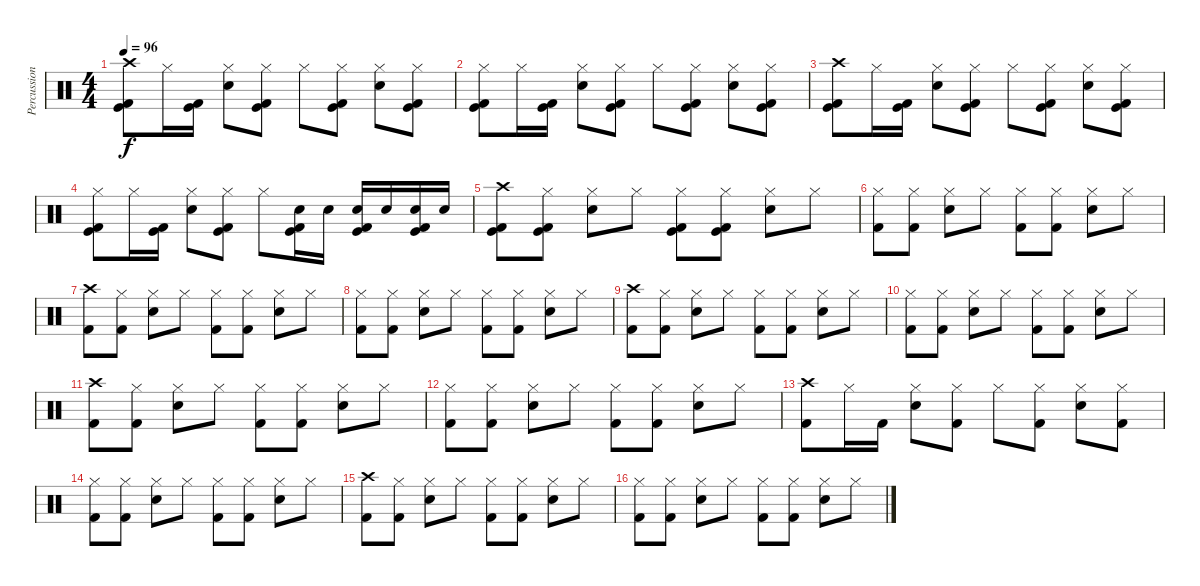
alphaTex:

\track ("Percussions" "Percussion") {instrument percussion}
\staff {score}
\articulation defaults
\ts (4 4)
\tempo 96
\clef neutral
\ks c
("Crash high (hit)" "Kick (hit)" "Kick (hit) 2").8{dy f} "Hi-Hat (closed)".16 ("Kick (hit)" "Kick (hit) 2").16 ("Hi-Hat (closed)" "Snare (hit) 2").8 ("Hi-Hat (closed)" "Kick (hit)" "Kick (hit) 2").8 "Hi-Hat (closed)".8 ("Hi-Hat (closed)" "Kick (hit)" "Kick (hit) 2").8 ("Hi-Hat (closed)" "Snare (hit) 2").8 ("Hi-Hat (closed)" "Kick (hit)" "Kick (hit) 2").8 |
("Hi-Hat (closed)" "Kick (hit)" "Kick (hit) 2").8 "Hi-Hat (closed)".16 ("Kick (hit)" "Kick (hit) 2").16 ("Hi-Hat (closed)" "Snare (hit) 2").8 ("Hi-Hat (closed)" "Kick (hit)" "Kick (hit) 2").8 "Hi-Hat (closed)".8 ("Hi-Hat (closed)" "Kick (hit)" "Kick (hit) 2").8 ("Hi-Hat (closed)" "Snare (hit) 2").8 ("Hi-Hat (closed)" "Kick (hit)" "Kick (hit) 2").8 |
("Crash high (hit)" "Kick (hit)" "Kick (hit) 2").8 "Hi-Hat (closed)".16 ("Kick (hit)" "Kick (hit) 2").16 ("Hi-Hat (closed)" "Snare (hit) 2").8 ("Hi-Hat (closed)" "Kick (hit)" "Kick (hit) 2").8 "Hi-Hat (closed)".8 ("Hi-Hat (closed)" "Kick (hit)" "Kick (hit) 2").8 ("Hi-Hat (closed)" "Snare (hit) 2").8 ("Hi-Hat (closed)" "Kick (hit)" "Kick (hit) 2").8 |
("Hi-Hat (closed)" "Kick (hit)" "Kick (hit) 2").8 "Hi-Hat (closed)".16 ("Kick (hit)" "Kick (hit) 2").16 ("Hi-Hat (closed)" "Snare (hit) 2").8 ("Hi-Hat (closed)" "Kick (hit)" "Kick (hit) 2").8 "Hi-Hat (closed)".8 ("Snare (hit) 2" "Kick (hit)" "Kick (hit) 2").16 "Snare (hit) 2".16 ("Snare (hit) 2" "Kick (hit)" "Kick (hit) 2").16 "Snare (hit) 2".16 ("Snare (hit) 2" "Kick (hit)" "Kick (hit) 2").16 "Snare (hit) 2".16 |
("Crash high (hit)" "Kick (hit)" "Kick (hit) 2").8 ("Hi-Hat (closed)" "Kick (hit)" "Kick (hit) 2").8 ("Hi-Hat (closed)" "Snare (hit) 2").8 "Hi-Hat (closed)".8 ("Hi-Hat (closed)" "Kick (hit)" "Kick (hit) 2").8 ("Hi-Hat (closed)" "Kick (hit)" "Kick (hit) 2").8 ("Hi-Hat (closed)" "Snare (hit) 2").8 "Hi-Hat (closed)".8 |
("Hi-Hat (closed)" "Kick (hit) 2").8 ("Hi-Hat (closed)" "Kick (hit) 2").8 ("Hi-Hat (closed)" "Snare (hit) 2").8 "Hi-Hat (closed)".8 ("Hi-Hat (closed)" "Kick (hit) 2").8 ("Hi-Hat (closed)" "Kick (hit) 2").8 ("Hi-Hat (closed)" "Snare (hit) 2").8 "Hi-Hat (closed)".8 |
("Crash high (hit)" "Kick (hit) 2").8 ("Hi-Hat (closed)" "Kick (hit) 2").8 ("Hi-Hat (closed)" "Snare (hit) 2").8 "Hi-Hat (closed)".8 ("Hi-Hat (closed)" "Kick (hit) 2").8 ("Hi-Hat (closed)" "Kick (hit) 2").8 ("Hi-Hat (closed)" "Snare (hit) 2").8 "Hi-Hat (closed)".8 |
("Hi-Hat (closed)" "Kick (hit) 2").8 ("Hi-Hat (closed)" "Kick (hit) 2").8 ("Hi-Hat (closed)" "Snare (hit) 2").8 "Hi-Hat (closed)".8 ("Hi-Hat (closed)" "Kick (hit) 2").8 ("Hi-Hat (closed)" "Kick (hit) 2").8 ("Hi-Hat (closed)" "Snare (hit) 2").8 "Hi-Hat (closed)".8 |
("Crash high (hit)" "Kick (hit) 2").8 ("Hi-Hat (closed)" "Kick (hit) 2").8 ("Hi-Hat (closed)" "Snare (hit) 2").8 "Hi-Hat (closed)".8 ("Hi-Hat (closed)" "Kick (hit) 2").8 ("Hi-Hat (closed)" "Kick (hit) 2").8 ("Hi-Hat (closed)" "Snare (hit) 2").8 "Hi-Hat (closed)".8 |
("Hi-Hat (closed)" "Kick (hit) 2").8 ("Hi-Hat (closed)" "Kick (hit) 2").8 ("Hi-Hat (closed)" "Snare (hit) 2").8 "Hi-Hat (closed)".8 ("Hi-Hat (closed)" "Kick (hit) 2").8 ("Hi-Hat (closed)" "Kick (hit) 2").8 ("Hi-Hat (closed)" "Snare (hit) 2").8 "Hi-Hat (closed)".8 |
("Crash high (hit)" "Kick (hit) 2").8 ("Hi-Hat (closed)" "Kick (hit) 2").8 ("Hi-Hat (closed)" "Snare (hit) 2").8 "Hi-Hat (closed)".8 ("Hi-Hat (closed)" "Kick (hit) 2").8 ("Hi-Hat (closed)" "Kick (hit) 2").8 ("Hi-Hat (closed)" "Snare (hit) 2").8 "Hi-Hat (closed)".8 |
("Hi-Hat (closed)" "Kick (hit) 2").8 ("Hi-Hat (closed)" "Kick (hit) 2").8 ("Hi-Hat (closed)" "Snare (hit) 2").8 "Hi-Hat (closed)".8 ("Hi-Hat (closed)" "Kick (hit) 2").8 ("Hi-Hat (closed)" "Kick (hit) 2").8 ("Hi-Hat (closed)" "Snare (hit) 2").8 "Hi-Hat (closed)".8 |
("Crash high (hit)" "Kick (hit) 2").8 "Hi-Hat (closed)".16 "Kick (hit) 2".16 ("Hi-Hat (closed)" "Snare (hit) 2").8 ("Hi-Hat (closed)" "Kick (hit) 2").8 "Hi-Hat (closed)".8 ("Hi-Hat (closed)" "Kick (hit) 2").8 ("Hi-Hat (closed)" "Snare (hit) 2").8 ("Hi-Hat (closed)" "Kick (hit) 2").8 |
("Hi-Hat (closed)" "Kick (hit) 2").8 ("Hi-Hat (closed)" "Kick (hit) 2").8 ("Hi-Hat (closed)" "Snare (hit) 2").8 "Hi-Hat (closed)".8 ("Hi-Hat (closed)" "Kick (hit) 2").8 ("Hi-Hat (closed)" "Kick (hit) 2").8 ("Hi-Hat (closed)" "Snare (hit) 2").8 "Hi-Hat (closed)".8 |
("Crash high (hit)" "Kick (hit) 2").8 ("Hi-Hat (closed)" "Kick (hit) 2").8 ("Hi-Hat (closed)" "Snare (hit) 2").8 "Hi-Hat (closed)".8 ("Hi-Hat (closed)" "Kick (hit) 2").8 ("Hi-Hat (closed)" "Kick (hit) 2").8 ("Hi-Hat (closed)" "Snare (hit) 2").8 "Hi-Hat (closed)".8 |
("Hi-Hat (closed)" "Kick (hit) 2").8 ("Hi-Hat (closed)" "Kick (hit) 2").8 ("Hi-Hat (closed)" "Snare (hit) 2").8 "Hi-Hat (closed)".8 ("Hi-Hat (closed)" "Kick (hit) 2").8 ("Hi-Hat (closed)" "Kick (hit) 2").8 ("Hi-Hat (closed)" "Snare (hit) 2").8 "Hi-Hat (closed)".8
